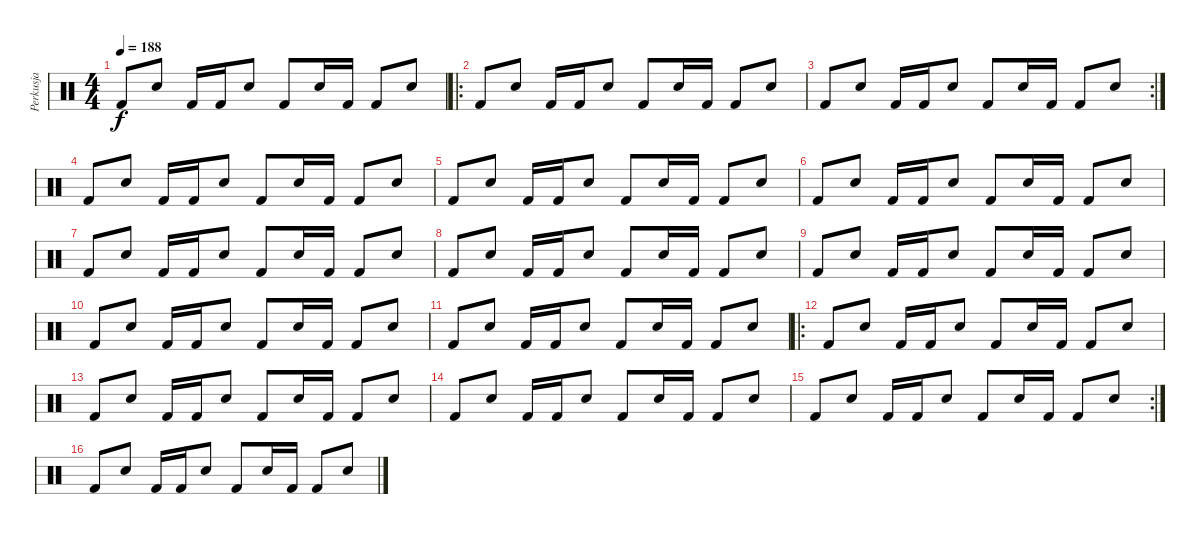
\track ("Perkusja" "Perkusja") {instrument percussion}
\staff {score}
\articulation defaults
\ts (4 4)
\tempo 188
\clef neutral
\ks c "Kick (hit) 2".8{dy f} "Snare (hit) 2".8 "Kick (hit) 2".16 "Kick (hit) 2".16 "Snare (hit) 2".8 "Kick (hit) 2".8 "Snare (hit) 2".16 "Kick (hit) 2".16 "Kick (hit) 2".8 "Snare (hit) 2".8
|
\ro "Kick (hit) 2".8 "Snare (hit) 2".8 "Kick (hit) 2".16 "Kick (hit) 2".16 "Snare (hit) 2".8 "Kick (hit) 2".8 "Snare (hit) 2".16 "Kick (hit) 2".16 "Kick (hit) 2".8 "Snare (hit) 2".8
|
\rc 2 "Kick (hit) 2".8 "Snare (hit) 2".8 "Kick (hit) 2".16 "Kick (hit) 2".16 "Snare (hit) 2".8 "Kick (hit) 2".8 "Snare (hit) 2".16 "Kick (hit) 2".16 "Kick (hit) 2".8 "Snare (hit) 2".8
|
"Kick (hit) 2".8 "Snare (hit) 2".8 "Kick (hit) 2".16 "Kick (hit) 2".16 "Snare (hit) 2".8 "Kick (hit) 2".8 "Snare (hit) 2".16 "Kick (hit) 2".16 "Kick (hit) 2".8 "Snare (hit) 2".8 |
"Kick (hit) 2".8 "Snare (hit) 2".8 "Kick (hit) 2".16 "Kick (hit) 2".16 "Snare (hit) 2".8 "Kick (hit) 2".8 "Snare (hit) 2".16 "Kick (hit) 2".16 "Kick (hit) 2".8 "Snare (hit) 2".8 |
"Kick (hit) 2".8 "Snare (hit) 2".8 "Kick (hit) 2".16 "Kick (hit) 2".16 "Snare (hit) 2".8 "Kick (hit) 2".8 "Snare (hit) 2".16 "Kick (hit) 2".16 "Kick (hit) 2".8 "Snare (hit) 2".8 |
"Kick (hit) 2".8 "Snare (hit) 2".8 "Kick (hit) 2".16 "Kick (hit) 2".16 "Snare (hit) 2".8 "Kick (hit) 2".8 "Snare (hit) 2".16 "Kick (hit) 2".16 "Kick (hit) 2".8 "Snare (hit) 2".8 |
"Kick (hit) 2".8 "Snare (hit) 2".8 "Kick (hit) 2".16 "Kick (hit) 2".16 "Snare (hit) 2".8 "Kick (hit) 2".8 "Snare (hit) 2".16 "Kick (hit) 2".16 "Kick (hit) 2".8 "Snare (hit) 2".8 |
"Kick (hit) 2".8 "Snare (hit) 2".8 "Kick (hit) 2".16 "Kick (hit) 2".16 "Snare (hit) 2".8 "Kick (hit) 2".8 "Snare (hit) 2".16 "Kick (hit) 2".16 "Kick (hit) 2".8 "Snare (hit) 2".8 |
"Kick (hit) 2".8 "Snare (hit) 2".8 "Kick (hit) 2".16 "Kick (hit) 2".16 "Snare (hit) 2".8 "Kick (hit) 2".8 "Snare (hit) 2".16 "Kick (hit) 2".16 "Kick (hit) 2".8 "Snare (hit) 2".8 |
"Kick (hit) 2".8 "Snare (hit) 2".8 "Kick (hit) 2".16 "Kick (hit) 2".16 "Snare (hit) 2".8 "Kick (hit) 2".8 "Snare (hit) 2".16 "Kick (hit) 2".16 "Kick (hit) 2".8 "Snare (hit) 2".8 |
\ro "Kick (hit) 2".8 "Snare (hit) 2".8 "Kick (hit) 2".16 "Kick (hit) 2".16 "Snare (hit) 2".8 "Kick (hit) 2".8 "Snare (hit) 2".16 "Kick (hit) 2".16 "Kick (hit) 2".8 "Snare (hit) 2".8
|
"Kick (hit) 2".8 "Snare (hit) 2".8 "Kick (hit) 2".16 "Kick (hit) 2".16 "Snare (hit) 2".8 "Kick (hit) 2".8 "Snare (hit) 2".16 "Kick (hit) 2".16 "Kick (hit) 2".8 "Snare (hit) 2".8 |
"Kick (hit) 2".8 "Snare (hit) 2".8 "Kick (hit) 2".16 "Kick (hit) 2".16 "Snare (hit) 2".8 "Kick (hit) 2".8 "Snare (hit) 2".16 "Kick (hit) 2".16 "Kick (hit) 2".8 "Snare (hit) 2".8 |
\rc 2 "Kick (hit) 2".8 "Snare (hit) 2".8 "Kick (hit) 2".16 "Kick (hit) 2".16 "Snare (hit) 2".8 "Kick (hit) 2".8 "Snare (hit) 2".16 "Kick (hit) 2".16 "Kick (hit) 2".8 "Snare (hit) 2".8
|
"Kick (hit) 2".8 "Snare (hit) 2".8 "Kick (hit) 2".16 "Kick (hit) 2".16 "Snare (hit) 2".8 "Kick (hit) 2".8 "Snare (hit) 2".16 "Kick (hit) 2".16 "Kick (hit) 2".8 "Snare (hit) 2".8
